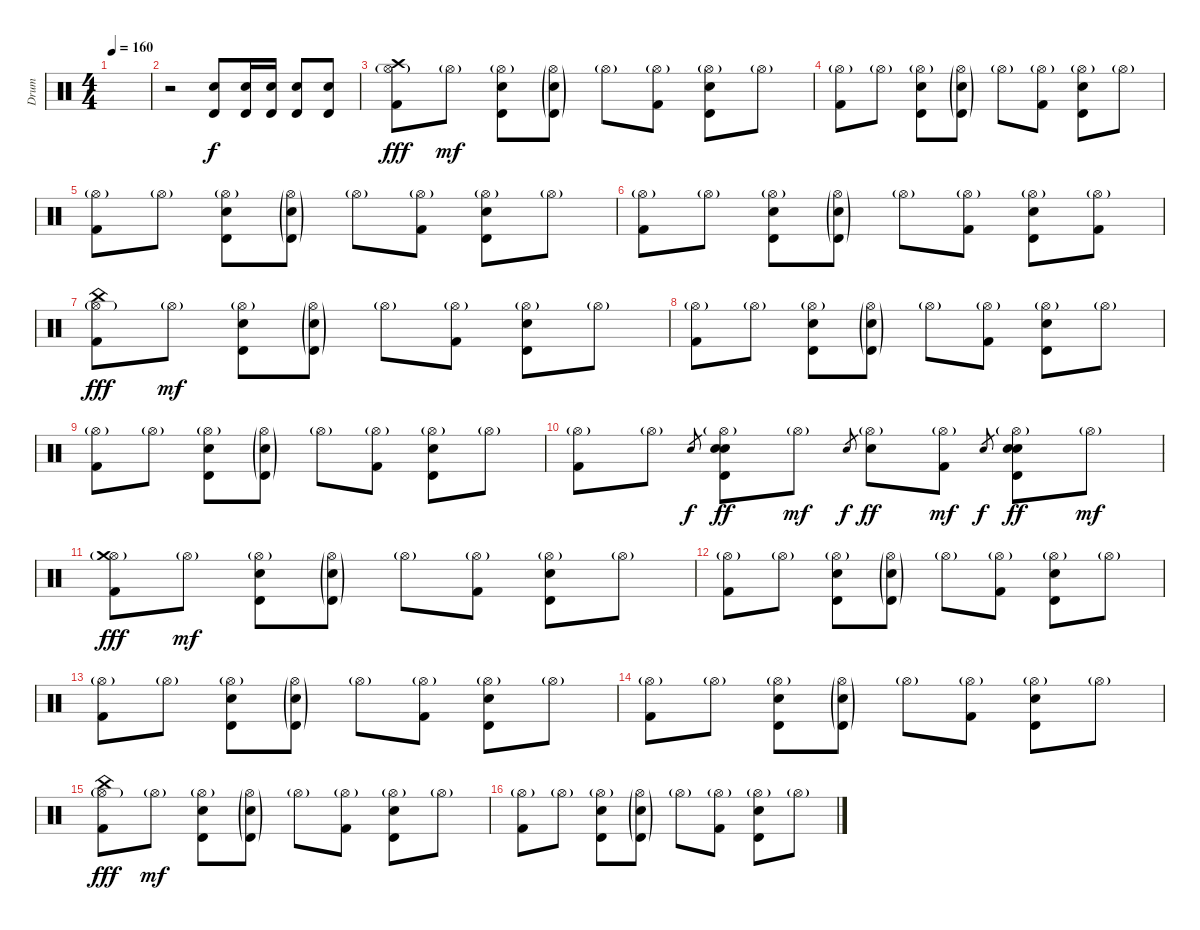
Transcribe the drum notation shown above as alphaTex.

\track ("Drum" "Drum") {instrument percussion}
\staff {score}
\articulation defaults
\ts (4 4)
\tempo 160
\clef neutral
\ks c
|
r.2 ("Timbale high (hit)" "Electric Snare (hit)").8 ("Timbale high (hit)" "Electric Snare (hit)").16 ("Timbale high (hit)" "Electric Snare (hit)").16 ("Timbale high (hit)" "Electric Snare (hit)").8 ("Timbale high (hit)" "Electric Snare (hit)").8 |
("Hi-Hat (open)"{g} "Crash high (hit)" "Kick (hit) 2").8{dy fff} "Hi-Hat (open)"{g}.8{dy mf} ("Hi-Hat (open)"{g} "Timbale high (hit)" "Electric Snare (hit)").8 ("Hi-Hat (open)"{g} "Timbale high (hit)"{g} "Electric Snare (hit)"{g}).8 "Hi-Hat (open)"{g}.8 ("Hi-Hat (open)"{g} "Kick (hit) 2").8 ("Hi-Hat (open)"{g} "Timbale high (hit)" "Electric Snare (hit)").8 "Hi-Hat (open)"{g}.8 |
("Hi-Hat (open)"{g} "Kick (hit) 2").8 "Hi-Hat (open)"{g}.8 ("Hi-Hat (open)"{g} "Timbale high (hit)" "Electric Snare (hit)").8 ("Hi-Hat (open)"{g} "Timbale high (hit)"{g} "Electric Snare (hit)"{g}).8 "Hi-Hat (open)"{g}.8 ("Hi-Hat (open)"{g} "Kick (hit) 2").8 ("Hi-Hat (open)"{g} "Timbale high (hit)" "Electric Snare (hit)").8 "Hi-Hat (open)"{g}.8 |
("Hi-Hat (open)"{g} "Kick (hit) 2").8 "Hi-Hat (open)"{g}.8 ("Hi-Hat (open)"{g} "Timbale high (hit)" "Electric Snare (hit)").8 ("Hi-Hat (open)"{g} "Timbale high (hit)"{g} "Electric Snare (hit)"{g}).8 "Hi-Hat (open)"{g}.8 ("Hi-Hat (open)"{g} "Kick (hit) 2").8 ("Hi-Hat (open)"{g} "Timbale high (hit)" "Electric Snare (hit)").8 "Hi-Hat (open)"{g}.8 |
("Hi-Hat (open)"{g} "Kick (hit) 2").8 "Hi-Hat (open)"{g}.8 ("Hi-Hat (open)"{g} "Timbale high (hit)" "Electric Snare (hit)").8 ("Hi-Hat (open)"{g} "Timbale high (hit)"{g} "Electric Snare (hit)"{g}).8 "Hi-Hat (open)"{g}.8 ("Hi-Hat (open)"{g} "Kick (hit) 2").8 ("Hi-Hat (open)"{g} "Timbale high (hit)" "Electric Snare (hit)").8 ("Hi-Hat (open)"{g} "Kick (hit) 2").8 |
("Hi-Hat (open)"{g} "China (hit)" "Kick (hit) 2").8{dy fff} "Hi-Hat (open)"{g}.8{dy mf} ("Hi-Hat (open)"{g} "Timbale high (hit)" "Electric Snare (hit)").8 ("Hi-Hat (open)"{g} "Timbale high (hit)"{g} "Electric Snare (hit)"{g}).8 "Hi-Hat (open)"{g}.8 ("Hi-Hat (open)"{g} "Kick (hit) 2").8 ("Hi-Hat (open)"{g} "Timbale high (hit)" "Electric Snare (hit)").8 "Hi-Hat (open)"{g}.8 |
("Hi-Hat (open)"{g} "Kick (hit) 2").8 "Hi-Hat (open)"{g}.8 ("Hi-Hat (open)"{g} "Timbale high (hit)" "Electric Snare (hit)").8 ("Hi-Hat (open)"{g} "Timbale high (hit)"{g} "Electric Snare (hit)"{g}).8 "Hi-Hat (open)"{g}.8 ("Hi-Hat (open)"{g} "Kick (hit) 2").8 ("Hi-Hat (open)"{g} "Timbale high (hit)" "Electric Snare (hit)").8 "Hi-Hat (open)"{g}.8 |
("Hi-Hat (open)"{g} "Kick (hit) 2").8 "Hi-Hat (open)"{g}.8 ("Hi-Hat (open)"{g} "Timbale high (hit)" "Electric Snare (hit)").8 ("Hi-Hat (open)"{g} "Timbale high (hit)"{g} "Electric Snare (hit)"{g}).8 "Hi-Hat (open)"{g}.8 ("Hi-Hat (open)"{g} "Kick (hit) 2").8 ("Hi-Hat (open)"{g} "Timbale high (hit)" "Electric Snare (hit)").8 "Hi-Hat (open)"{g}.8 |
("Hi-Hat (open)"{g} "Kick (hit) 2").8 "Hi-Hat (open)"{g}.8 "Hand Clap (hit)"{sl}.8{gr dy f} ("Hi-Hat (open)"{g} "Hand Clap (hit)" "Timbale high (hit)" "Electric Snare (hit)").8{dy ff} "Hi-Hat (open)"{g}.8{dy mf} "Hand Clap (hit)"{sl}.8{gr dy f} ("Hi-Hat (open)"{g} "Hand Clap (hit)").8{dy ff} ("Hi-Hat (open)"{g} "Kick (hit) 2").8{dy mf} "Hand Clap (hit)"{sl}.8{gr dy f} ("Hi-Hat (open)"{g} "Hand Clap (hit)" "Timbale high (hit)" "Electric Snare (hit)").8{dy ff} "Hi-Hat (open)"{g}.8{dy mf} |
("Hi-Hat (open)"{g} "Crash medium (hit)" "Kick (hit) 2").8{dy fff} "Hi-Hat (open)"{g}.8{dy mf} ("Hi-Hat (open)"{g} "Timbale high (hit)" "Electric Snare (hit)").8 ("Hi-Hat (open)"{g} "Timbale high (hit)"{g} "Electric Snare (hit)"{g}).8 "Hi-Hat (open)"{g}.8 ("Hi-Hat (open)"{g} "Kick (hit) 2").8 ("Hi-Hat (open)"{g} "Timbale high (hit)" "Electric Snare (hit)").8 "Hi-Hat (open)"{g}.8 |
("Hi-Hat (open)"{g} "Kick (hit) 2").8 "Hi-Hat (open)"{g}.8 ("Hi-Hat (open)"{g} "Timbale high (hit)" "Electric Snare (hit)").8 ("Hi-Hat (open)"{g} "Timbale high (hit)"{g} "Electric Snare (hit)"{g}).8 "Hi-Hat (open)"{g}.8 ("Hi-Hat (open)"{g} "Kick (hit) 2").8 ("Hi-Hat (open)"{g} "Timbale high (hit)" "Electric Snare (hit)").8 "Hi-Hat (open)"{g}.8 |
("Hi-Hat (open)"{g} "Kick (hit) 2").8 "Hi-Hat (open)"{g}.8 ("Hi-Hat (open)"{g} "Timbale high (hit)" "Electric Snare (hit)").8 ("Hi-Hat (open)"{g} "Timbale high (hit)"{g} "Electric Snare (hit)"{g}).8 "Hi-Hat (open)"{g}.8 ("Hi-Hat (open)"{g} "Kick (hit) 2").8 ("Hi-Hat (open)"{g} "Timbale high (hit)" "Electric Snare (hit)").8 "Hi-Hat (open)"{g}.8 |
("Hi-Hat (open)"{g} "Kick (hit) 2").8 "Hi-Hat (open)"{g}.8 ("Hi-Hat (open)"{g} "Timbale high (hit)" "Electric Snare (hit)").8 ("Hi-Hat (open)"{g} "Timbale high (hit)"{g} "Electric Snare (hit)"{g}).8 "Hi-Hat (open)"{g}.8 ("Hi-Hat (open)"{g} "Kick (hit) 2").8 ("Hi-Hat (open)"{g} "Timbale high (hit)" "Electric Snare (hit)").8 "Hi-Hat (open)"{g}.8 |
("Hi-Hat (open)"{g} "China (hit)" "Kick (hit) 2").8{dy fff} "Hi-Hat (open)"{g}.8{dy mf} ("Hi-Hat (open)"{g} "Timbale high (hit)" "Electric Snare (hit)").8 ("Hi-Hat (open)"{g} "Timbale high (hit)"{g} "Electric Snare (hit)"{g}).8 "Hi-Hat (open)"{g}.8 ("Hi-Hat (open)"{g} "Kick (hit) 2").8 ("Hi-Hat (open)"{g} "Timbale high (hit)" "Electric Snare (hit)").8 "Hi-Hat (open)"{g}.8 |
("Hi-Hat (open)"{g} "Kick (hit) 2").8 "Hi-Hat (open)"{g}.8 ("Hi-Hat (open)"{g} "Timbale high (hit)" "Electric Snare (hit)").8 ("Hi-Hat (open)"{g} "Timbale high (hit)"{g} "Electric Snare (hit)"{g}).8 "Hi-Hat (open)"{g}.8 ("Hi-Hat (open)"{g} "Kick (hit) 2").8 ("Hi-Hat (open)"{g} "Timbale high (hit)" "Electric Snare (hit)").8 "Hi-Hat (open)"{g}.8
